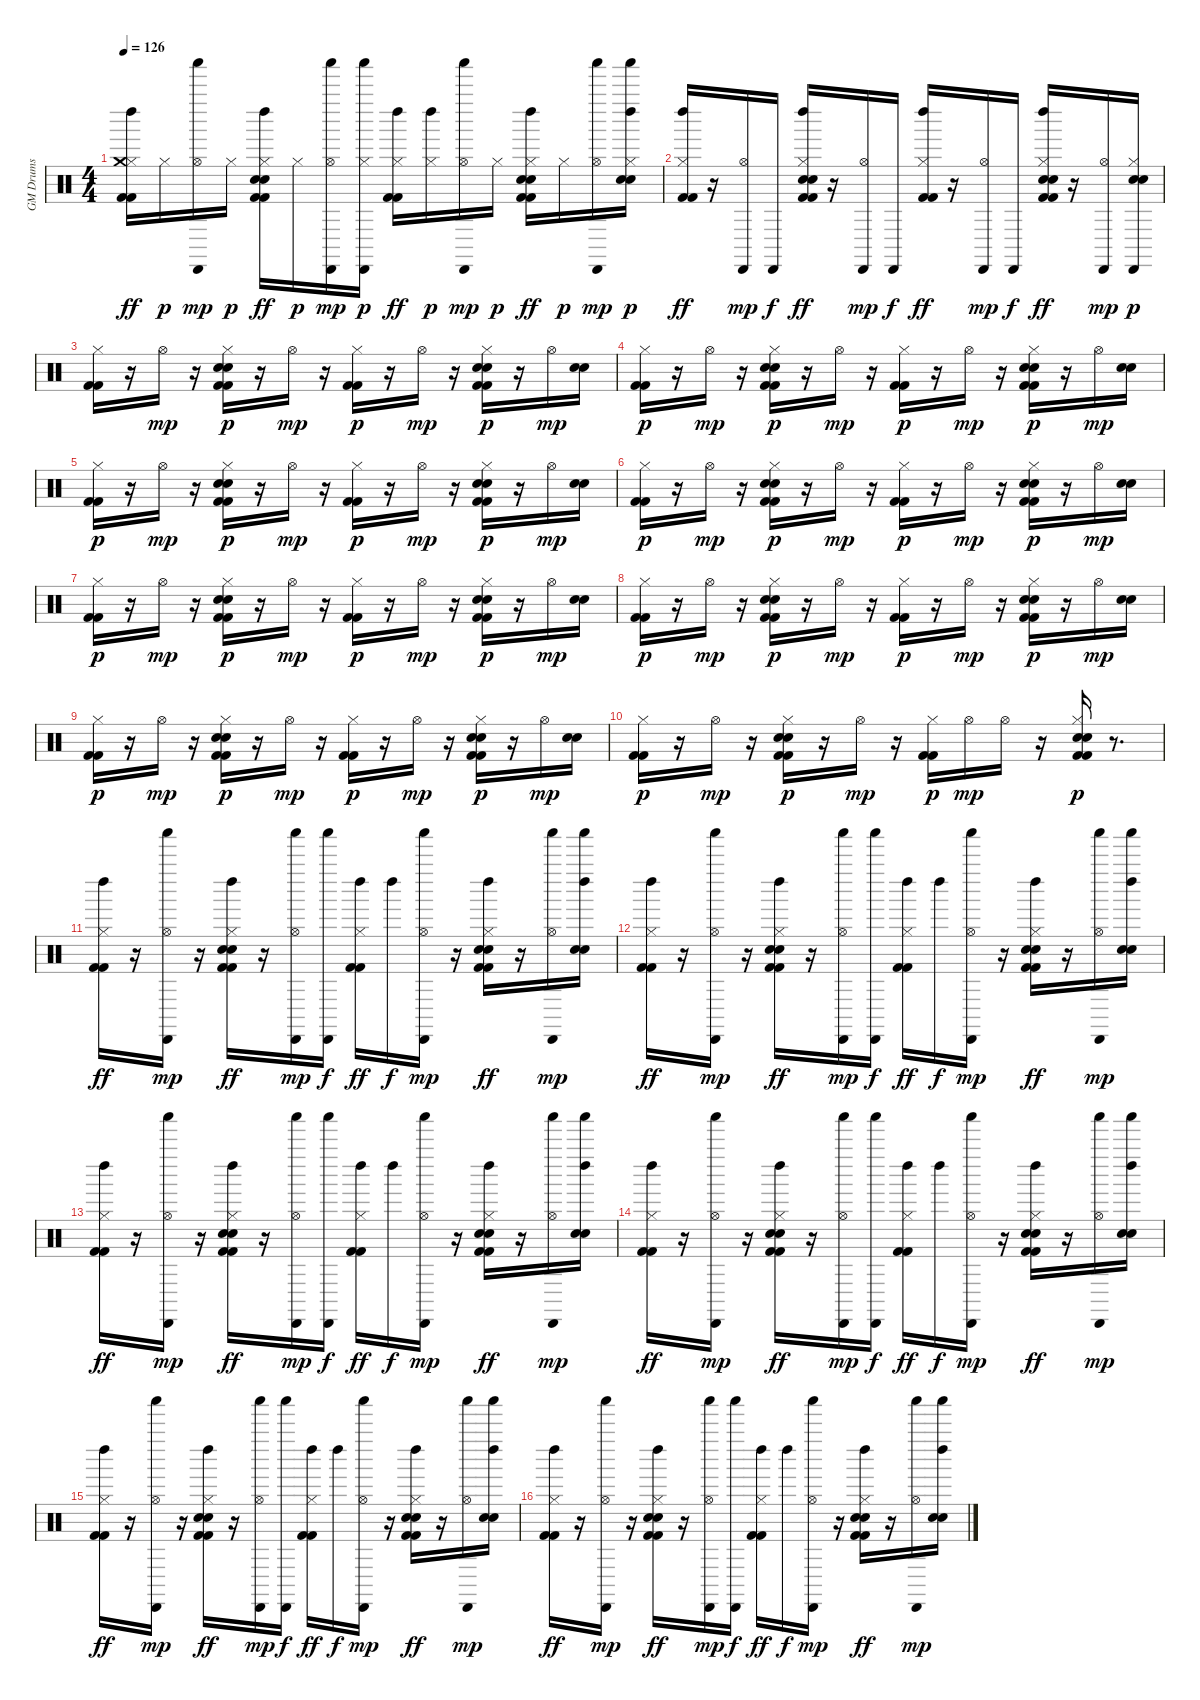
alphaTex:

\track ("GM Drums" "GM Drums") {instrument percussion}
\staff {score}
\articulation defaults
\ts (4 4)
\tempo 126
\clef neutral
\ks c
("Kick (hit) 2" "Kick (hit) 2" "Hi-Hat (closed)" "Crash medium (hit)" "Left Maraca (hit)").16{dy ff} "Hi-Hat (closed)".16{dy p} ("Hi-Hat (open)" "Cabasa (hit)" "Shaker (hit)").16{dy mp} "Hi-Hat (closed)".16{dy p} ("Kick (hit) 2" "Kick (hit) 2" "Hand Clap (hit)" "Electric Snare (hit)" "Hi-Hat (closed)" "Left Maraca (hit)").16{dy ff} "Hi-Hat (closed)".16{dy p} ("Hi-Hat (open)" "Cabasa (hit)" "Shaker (hit)").16{dy mp} ("Hi-Hat (closed)" "Cabasa (hit)" "Shaker (hit)").16{dy p} ("Kick (hit) 2" "Kick (hit) 2" "Hi-Hat (closed)" "Left Maraca (hit)").16{dy ff} ("Hi-Hat (closed)" "Left Maraca (hit)").16{dy p} ("Hi-Hat (open)" "Cabasa (hit)" "Shaker (hit)").16{dy mp} "Hi-Hat (closed)".16{dy p} ("Kick (hit) 2" "Kick (hit) 2" "Hand Clap (hit)" "Electric Snare (hit)" "Hi-Hat (closed)" "Left Maraca (hit)").16{dy ff} "Hi-Hat (closed)".16{dy p} ("Hi-Hat (open)" "Cabasa (hit)" "Shaker (hit)").16{dy mp} ("Hand Clap (hit)" "Electric Snare (hit)" "Hi-Hat (closed)" "Left Maraca (hit)" "Shaker (hit)").16{dy p} |
("Kick (hit) 2" "Kick (hit) 2" "Hi-Hat (closed)" "Left Maraca (hit)").16{dy ff} r.16 ("Hi-Hat (open)" "Cabasa (hit)").16{dy mp} "Cabasa (hit)".16{dy f} ("Kick (hit) 2" "Kick (hit) 2" "Hand Clap (hit)" "Electric Snare (hit)" "Hi-Hat (closed)" "Left Maraca (hit)").16{dy ff} r.16 ("Hi-Hat (open)" "Cabasa (hit)").16{dy mp} "Cabasa (hit)".16{dy f} ("Kick (hit) 2" "Kick (hit) 2" "Hi-Hat (closed)" "Left Maraca (hit)").16{dy ff} r.16 ("Hi-Hat (open)" "Cabasa (hit)").16{dy mp} "Cabasa (hit)".16{dy f} ("Kick (hit) 2" "Kick (hit) 2" "Hand Clap (hit)" "Electric Snare (hit)" "Hi-Hat (closed)" "Left Maraca (hit)").16{dy ff} r.16 ("Hi-Hat (open)" "Cabasa (hit)").16{dy mp} ("Hand Clap (hit)" "Electric Snare (hit)" "Hi-Hat (closed)" "Cabasa (hit)").16{dy p} |
("Kick (hit) 2" "Kick (hit) 2" "Hi-Hat (closed)").16 r.16 "Hi-Hat (open)".16{dy mp} r.16 ("Kick (hit) 2" "Kick (hit) 2" "Hand Clap (hit)" "Electric Snare (hit)" "Hi-Hat (closed)").16{dy p} r.16 "Hi-Hat (open)".16{dy mp} r.16 ("Kick (hit) 2" "Kick (hit) 2" "Hi-Hat (closed)").16{dy p} r.16 "Hi-Hat (open)".16{dy mp} r.16 ("Kick (hit) 2" "Kick (hit) 2" "Hand Clap (hit)" "Electric Snare (hit)" "Hi-Hat (closed)").16{dy p} r.16 "Hi-Hat (open)".16{dy mp} ("Hand Clap (hit)" "Electric Snare (hit)").16 |
("Kick (hit) 2" "Kick (hit) 2" "Hi-Hat (closed)").16{dy p} r.16 "Hi-Hat (open)".16{dy mp} r.16 ("Kick (hit) 2" "Kick (hit) 2" "Hand Clap (hit)" "Electric Snare (hit)" "Hi-Hat (closed)").16{dy p} r.16 "Hi-Hat (open)".16{dy mp} r.16 ("Kick (hit) 2" "Kick (hit) 2" "Hi-Hat (closed)").16{dy p} r.16 "Hi-Hat (open)".16{dy mp} r.16 ("Kick (hit) 2" "Kick (hit) 2" "Hand Clap (hit)" "Electric Snare (hit)" "Hi-Hat (closed)").16{dy p} r.16 "Hi-Hat (open)".16{dy mp} ("Hand Clap (hit)" "Electric Snare (hit)").16 |
("Kick (hit) 2" "Kick (hit) 2" "Hi-Hat (closed)").16{dy p} r.16 "Hi-Hat (open)".16{dy mp} r.16 ("Kick (hit) 2" "Kick (hit) 2" "Hand Clap (hit)" "Electric Snare (hit)" "Hi-Hat (closed)").16{dy p} r.16 "Hi-Hat (open)".16{dy mp} r.16 ("Kick (hit) 2" "Kick (hit) 2" "Hi-Hat (closed)").16{dy p} r.16 "Hi-Hat (open)".16{dy mp} r.16 ("Kick (hit) 2" "Kick (hit) 2" "Hand Clap (hit)" "Electric Snare (hit)" "Hi-Hat (closed)").16{dy p} r.16 "Hi-Hat (open)".16{dy mp} ("Hand Clap (hit)" "Electric Snare (hit)").16 |
("Kick (hit) 2" "Kick (hit) 2" "Hi-Hat (closed)").16{dy p} r.16 "Hi-Hat (open)".16{dy mp} r.16 ("Kick (hit) 2" "Kick (hit) 2" "Hand Clap (hit)" "Electric Snare (hit)" "Hi-Hat (closed)").16{dy p} r.16 "Hi-Hat (open)".16{dy mp} r.16 ("Kick (hit) 2" "Kick (hit) 2" "Hi-Hat (closed)").16{dy p} r.16 "Hi-Hat (open)".16{dy mp} r.16 ("Kick (hit) 2" "Kick (hit) 2" "Hand Clap (hit)" "Electric Snare (hit)" "Hi-Hat (closed)").16{dy p} r.16 "Hi-Hat (open)".16{dy mp} ("Hand Clap (hit)" "Electric Snare (hit)").16 |
("Kick (hit) 2" "Kick (hit) 2" "Hi-Hat (closed)").16{dy p} r.16 "Hi-Hat (open)".16{dy mp} r.16 ("Kick (hit) 2" "Kick (hit) 2" "Hand Clap (hit)" "Electric Snare (hit)" "Hi-Hat (closed)").16{dy p} r.16 "Hi-Hat (open)".16{dy mp} r.16 ("Kick (hit) 2" "Kick (hit) 2" "Hi-Hat (closed)").16{dy p} r.16 "Hi-Hat (open)".16{dy mp} r.16 ("Kick (hit) 2" "Kick (hit) 2" "Hand Clap (hit)" "Electric Snare (hit)" "Hi-Hat (closed)").16{dy p} r.16 "Hi-Hat (open)".16{dy mp} ("Hand Clap (hit)" "Electric Snare (hit)").16 |
("Kick (hit) 2" "Kick (hit) 2" "Hi-Hat (closed)").16{dy p} r.16 "Hi-Hat (open)".16{dy mp} r.16 ("Kick (hit) 2" "Kick (hit) 2" "Hand Clap (hit)" "Electric Snare (hit)" "Hi-Hat (closed)").16{dy p} r.16 "Hi-Hat (open)".16{dy mp} r.16 ("Kick (hit) 2" "Kick (hit) 2" "Hi-Hat (closed)").16{dy p} r.16 "Hi-Hat (open)".16{dy mp} r.16 ("Kick (hit) 2" "Kick (hit) 2" "Hand Clap (hit)" "Electric Snare (hit)" "Hi-Hat (closed)").16{dy p} r.16 "Hi-Hat (open)".16{dy mp} ("Hand Clap (hit)" "Electric Snare (hit)").16 |
("Kick (hit) 2" "Kick (hit) 2" "Hi-Hat (closed)").16{dy p} r.16 "Hi-Hat (open)".16{dy mp} r.16 ("Kick (hit) 2" "Kick (hit) 2" "Hand Clap (hit)" "Electric Snare (hit)" "Hi-Hat (closed)").16{dy p} r.16 "Hi-Hat (open)".16{dy mp} r.16 ("Kick (hit) 2" "Kick (hit) 2" "Hi-Hat (closed)").16{dy p} r.16 "Hi-Hat (open)".16{dy mp} r.16 ("Kick (hit) 2" "Kick (hit) 2" "Hand Clap (hit)" "Electric Snare (hit)" "Hi-Hat (closed)").16{dy p} r.16 "Hi-Hat (open)".16{dy mp} ("Hand Clap (hit)" "Electric Snare (hit)").16 |
("Kick (hit) 2" "Kick (hit) 2" "Hi-Hat (closed)").16{dy p} r.16 "Hi-Hat (open)".16{dy mp} r.16 ("Kick (hit) 2" "Kick (hit) 2" "Hand Clap (hit)" "Electric Snare (hit)" "Hi-Hat (closed)").16{dy p} r.16 "Hi-Hat (open)".16{dy mp} r.16 ("Kick (hit) 2" "Kick (hit) 2" "Hi-Hat (closed)").16{dy p} "Hi-Hat (open)".16{dy mp} "Hi-Hat (open)".16 r.16 ("Kick (hit) 2" "Kick (hit) 2" "Hand Clap (hit)" "Electric Snare (hit)" "Hi-Hat (closed)").16{dy p} r.8{d} |
("Kick (hit) 2" "Kick (hit) 2" "Hi-Hat (closed)" "Left Maraca (hit)").16{dy ff} r.16 ("Hi-Hat (open)" "Cabasa (hit)" "Shaker (hit)").16{dy mp} r.16 ("Kick (hit) 2" "Kick (hit) 2" "Hand Clap (hit)" "Electric Snare (hit)" "Hi-Hat (closed)" "Left Maraca (hit)").16{dy ff} r.16 ("Hi-Hat (open)" "Cabasa (hit)" "Shaker (hit)").16{dy mp} ("Cabasa (hit)" "Shaker (hit)").16{dy f} ("Kick (hit) 2" "Kick (hit) 2" "Hi-Hat (closed)" "Left Maraca (hit)").16{dy ff} "Left Maraca (hit)".16{dy f} ("Hi-Hat (open)" "Cabasa (hit)" "Shaker (hit)").16{dy mp} r.16 ("Kick (hit) 2" "Kick (hit) 2" "Hand Clap (hit)" "Electric Snare (hit)" "Hi-Hat (closed)" "Left Maraca (hit)").16{dy ff} r.16 ("Hi-Hat (open)" "Cabasa (hit)" "Shaker (hit)").16{dy mp} ("Hand Clap (hit)" "Electric Snare (hit)" "Left Maraca (hit)" "Shaker (hit)").16 |
("Kick (hit) 2" "Kick (hit) 2" "Hi-Hat (closed)" "Left Maraca (hit)").16{dy ff} r.16 ("Hi-Hat (open)" "Cabasa (hit)" "Shaker (hit)").16{dy mp} r.16 ("Kick (hit) 2" "Kick (hit) 2" "Hand Clap (hit)" "Electric Snare (hit)" "Hi-Hat (closed)" "Left Maraca (hit)").16{dy ff} r.16 ("Hi-Hat (open)" "Cabasa (hit)" "Shaker (hit)").16{dy mp} ("Cabasa (hit)" "Shaker (hit)").16{dy f} ("Kick (hit) 2" "Kick (hit) 2" "Hi-Hat (closed)" "Left Maraca (hit)").16{dy ff} "Left Maraca (hit)".16{dy f} ("Hi-Hat (open)" "Cabasa (hit)" "Shaker (hit)").16{dy mp} r.16 ("Kick (hit) 2" "Kick (hit) 2" "Hand Clap (hit)" "Electric Snare (hit)" "Hi-Hat (closed)" "Left Maraca (hit)").16{dy ff} r.16 ("Hi-Hat (open)" "Cabasa (hit)" "Shaker (hit)").16{dy mp} ("Hand Clap (hit)" "Electric Snare (hit)" "Left Maraca (hit)" "Shaker (hit)").16 |
("Kick (hit) 2" "Kick (hit) 2" "Hi-Hat (closed)" "Left Maraca (hit)").16{dy ff} r.16 ("Hi-Hat (open)" "Cabasa (hit)" "Shaker (hit)").16{dy mp} r.16 ("Kick (hit) 2" "Kick (hit) 2" "Hand Clap (hit)" "Electric Snare (hit)" "Hi-Hat (closed)" "Left Maraca (hit)").16{dy ff} r.16 ("Hi-Hat (open)" "Cabasa (hit)" "Shaker (hit)").16{dy mp} ("Cabasa (hit)" "Shaker (hit)").16{dy f} ("Kick (hit) 2" "Kick (hit) 2" "Hi-Hat (closed)" "Left Maraca (hit)").16{dy ff} "Left Maraca (hit)".16{dy f} ("Hi-Hat (open)" "Cabasa (hit)" "Shaker (hit)").16{dy mp} r.16 ("Kick (hit) 2" "Kick (hit) 2" "Hand Clap (hit)" "Electric Snare (hit)" "Hi-Hat (closed)" "Left Maraca (hit)").16{dy ff} r.16 ("Hi-Hat (open)" "Cabasa (hit)" "Shaker (hit)").16{dy mp} ("Hand Clap (hit)" "Electric Snare (hit)" "Left Maraca (hit)" "Shaker (hit)").16 |
("Kick (hit) 2" "Kick (hit) 2" "Hi-Hat (closed)" "Left Maraca (hit)").16{dy ff} r.16 ("Hi-Hat (open)" "Cabasa (hit)" "Shaker (hit)").16{dy mp} r.16 ("Kick (hit) 2" "Kick (hit) 2" "Hand Clap (hit)" "Electric Snare (hit)" "Hi-Hat (closed)" "Left Maraca (hit)").16{dy ff} r.16 ("Hi-Hat (open)" "Cabasa (hit)" "Shaker (hit)").16{dy mp} ("Cabasa (hit)" "Shaker (hit)").16{dy f} ("Kick (hit) 2" "Kick (hit) 2" "Hi-Hat (closed)" "Left Maraca (hit)").16{dy ff} "Left Maraca (hit)".16{dy f} ("Hi-Hat (open)" "Cabasa (hit)" "Shaker (hit)").16{dy mp} r.16 ("Kick (hit) 2" "Kick (hit) 2" "Hand Clap (hit)" "Electric Snare (hit)" "Hi-Hat (closed)" "Left Maraca (hit)").16{dy ff} r.16 ("Hi-Hat (open)" "Cabasa (hit)" "Shaker (hit)").16{dy mp} ("Hand Clap (hit)" "Electric Snare (hit)" "Left Maraca (hit)" "Shaker (hit)").16 |
("Kick (hit) 2" "Kick (hit) 2" "Hi-Hat (closed)" "Left Maraca (hit)").16{dy ff} r.16 ("Hi-Hat (open)" "Cabasa (hit)" "Shaker (hit)").16{dy mp} r.16 ("Kick (hit) 2" "Kick (hit) 2" "Hand Clap (hit)" "Electric Snare (hit)" "Hi-Hat (closed)" "Left Maraca (hit)").16{dy ff} r.16 ("Hi-Hat (open)" "Cabasa (hit)" "Shaker (hit)").16{dy mp} ("Cabasa (hit)" "Shaker (hit)").16{dy f} ("Kick (hit) 2" "Kick (hit) 2" "Hi-Hat (closed)" "Left Maraca (hit)").16{dy ff} "Left Maraca (hit)".16{dy f} ("Hi-Hat (open)" "Cabasa (hit)" "Shaker (hit)").16{dy mp} r.16 ("Kick (hit) 2" "Kick (hit) 2" "Hand Clap (hit)" "Electric Snare (hit)" "Hi-Hat (closed)" "Left Maraca (hit)").16{dy ff} r.16 ("Hi-Hat (open)" "Cabasa (hit)" "Shaker (hit)").16{dy mp} ("Hand Clap (hit)" "Electric Snare (hit)" "Left Maraca (hit)" "Shaker (hit)").16 |
("Kick (hit) 2" "Kick (hit) 2" "Hi-Hat (closed)" "Left Maraca (hit)").16{dy ff} r.16 ("Hi-Hat (open)" "Cabasa (hit)" "Shaker (hit)").16{dy mp} r.16 ("Kick (hit) 2" "Kick (hit) 2" "Hand Clap (hit)" "Electric Snare (hit)" "Hi-Hat (closed)" "Left Maraca (hit)").16{dy ff} r.16 ("Hi-Hat (open)" "Cabasa (hit)" "Shaker (hit)").16{dy mp} ("Cabasa (hit)" "Shaker (hit)").16{dy f} ("Kick (hit) 2" "Kick (hit) 2" "Hi-Hat (closed)" "Left Maraca (hit)").16{dy ff} "Left Maraca (hit)".16{dy f} ("Hi-Hat (open)" "Cabasa (hit)" "Shaker (hit)").16{dy mp} r.16 ("Kick (hit) 2" "Kick (hit) 2" "Hand Clap (hit)" "Electric Snare (hit)" "Hi-Hat (closed)" "Left Maraca (hit)").16{dy ff} r.16 ("Hi-Hat (open)" "Cabasa (hit)" "Shaker (hit)").16{dy mp} ("Hand Clap (hit)" "Electric Snare (hit)" "Left Maraca (hit)" "Shaker (hit)").16
